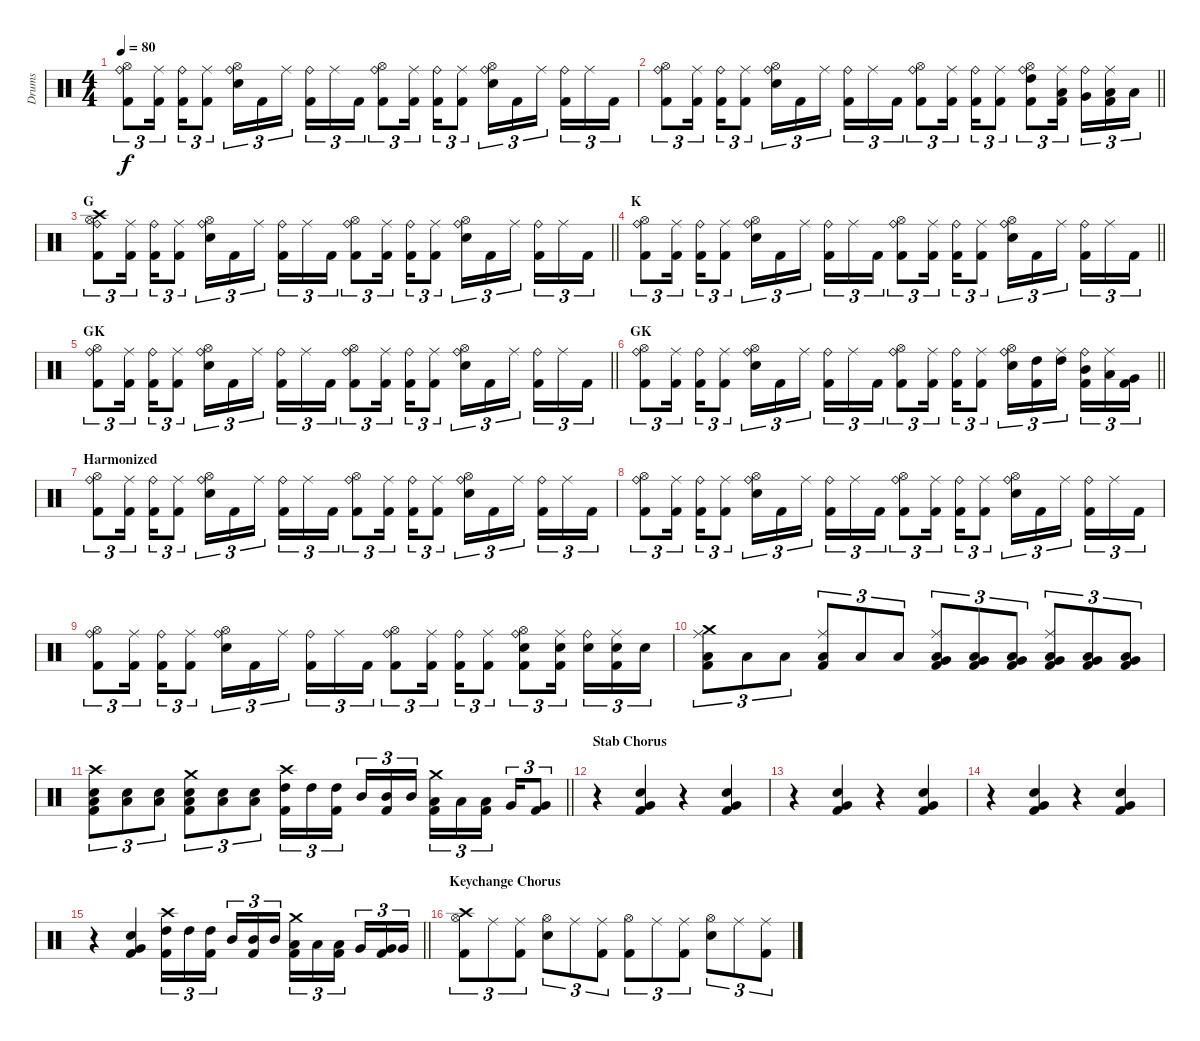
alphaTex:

\track ("Drums" "Drums") {instrument percussion}
\staff {score}
\articulation defaults
\ts (4 4)
\tempo 80
\clef neutral
\ks c
("Ride (bell)" "Hi-Hat (open)" "Kick (hit) 2").8{tu (3 2) dy f} ("Ride (middle)" "Kick (hit) 2").16{tu (3 2)} ("Ride (bell)" "Kick (hit) 2").16{tu (3 2)} ("Ride (middle)" "Kick (hit) 2").8{tu (3 2)} ("Ride (bell)" "Hi-Hat (open)" "Snare (hit) 2").16{tu (3 2)} "Kick (hit) 2".16{tu (3 2)} "Ride (middle)".16{tu (3 2) beam splitsecondary} ("Ride (bell)" "Kick (hit) 2").16{tu (3 2)} "Ride (middle)".16{tu (3 2)} "Kick (hit) 2".16{tu (3 2)} ("Ride (bell)" "Hi-Hat (open)" "Kick (hit) 2").8{tu (3 2)} ("Ride (middle)" "Kick (hit) 2").16{tu (3 2)} ("Ride (bell)" "Kick (hit) 2").16{tu (3 2)} ("Ride (middle)" "Kick (hit) 2").8{tu (3 2)} ("Ride (bell)" "Hi-Hat (open)" "Snare (hit) 2").16{tu (3 2)} "Kick (hit) 2".16{tu (3 2)} "Ride (middle)".16{tu (3 2) beam splitsecondary} ("Ride (bell)" "Kick (hit) 2").16{tu (3 2)} "Ride (middle)".16{tu (3 2)} "Kick (hit) 2".16{tu (3 2)} |
\barLineRight lightlight
("Ride (bell)" "Hi-Hat (open)" "Kick (hit) 2").8{tu (3 2)} ("Ride (middle)" "Kick (hit) 2").16{tu (3 2)} ("Ride (bell)" "Kick (hit) 2").16{tu (3 2)} ("Ride (middle)" "Kick (hit) 2").8{tu (3 2)} ("Ride (bell)" "Hi-Hat (open)" "Snare (hit) 2").16{tu (3 2)} "Kick (hit) 2".16{tu (3 2)} "Ride (middle)".16{tu (3 2) beam splitsecondary} ("Ride (bell)" "Kick (hit) 2").16{tu (3 2)} "Ride (middle)".16{tu (3 2)} "Kick (hit) 2".16{tu (3 2)} ("Ride (bell)" "Hi-Hat (open)" "Kick (hit) 2").8{tu (3 2)} ("Ride (middle)" "Kick (hit) 2").16{tu (3 2)} ("Ride (bell)" "Kick (hit) 2").16{tu (3 2)} ("Ride (middle)" "Kick (hit) 2").8{tu (3 2)} ("Ride (bell)" "Hi-Hat (open)" "High Tom (hit)" "Kick (hit) 2").8{tu (3 2)} ("Ride (middle)" "Low Tom (hit)" "Kick (hit) 2").16{tu (3 2)} ("Ride (bell)" "Very Low Tom (hit)").16{tu (3 2)} ("Ride (middle)" "Low Floor Tom (hit)" "Kick (hit) 2").16{tu (3 2)} "Low Floor Tom (hit)".16{tu (3 2)} |
\section ("" "G")
\barLineRight lightlight
("Crash high (hit)" "Ride (bell)" "Hi-Hat (open)" "Kick (hit) 2").8{tu (3 2)} ("Ride (middle)" "Kick (hit) 2").16{tu (3 2)} ("Ride (bell)" "Kick (hit) 2").16{tu (3 2)} ("Ride (middle)" "Kick (hit) 2").8{tu (3 2)} ("Ride (bell)" "Hi-Hat (open)" "Snare (hit) 2").16{tu (3 2)} "Kick (hit) 2".16{tu (3 2)} "Ride (middle)".16{tu (3 2) beam splitsecondary} ("Ride (bell)" "Kick (hit) 2").16{tu (3 2)} "Ride (middle)".16{tu (3 2)} "Kick (hit) 2".16{tu (3 2)} ("Ride (bell)" "Hi-Hat (open)" "Kick (hit) 2").8{tu (3 2)} ("Ride (middle)" "Kick (hit) 2").16{tu (3 2)} ("Ride (bell)" "Kick (hit) 2").16{tu (3 2)} ("Ride (middle)" "Kick (hit) 2").8{tu (3 2)} ("Ride (bell)" "Hi-Hat (open)" "Snare (hit) 2").16{tu (3 2)} "Kick (hit) 2".16{tu (3 2)} "Ride (middle)".16{tu (3 2) beam splitsecondary} ("Ride (bell)" "Kick (hit) 2").16{tu (3 2)} "Ride (middle)".16{tu (3 2)} "Kick (hit) 2".16{tu (3 2)} |
\section ("" "K")
\barLineRight lightlight
("Ride (bell)" "Hi-Hat (open)" "Kick (hit) 2").8{tu (3 2)} ("Ride (middle)" "Kick (hit) 2").16{tu (3 2)} ("Ride (bell)" "Kick (hit) 2").16{tu (3 2)} ("Ride (middle)" "Kick (hit) 2").8{tu (3 2)} ("Ride (bell)" "Hi-Hat (open)" "Snare (hit) 2").16{tu (3 2)} "Kick (hit) 2".16{tu (3 2)} "Ride (middle)".16{tu (3 2) beam splitsecondary} ("Ride (bell)" "Kick (hit) 2").16{tu (3 2)} "Ride (middle)".16{tu (3 2)} "Kick (hit) 2".16{tu (3 2)} ("Ride (bell)" "Hi-Hat (open)" "Kick (hit) 2").8{tu (3 2)} ("Ride (middle)" "Kick (hit) 2").16{tu (3 2)} ("Ride (bell)" "Kick (hit) 2").16{tu (3 2)} ("Ride (middle)" "Kick (hit) 2").8{tu (3 2)} ("Ride (bell)" "Hi-Hat (open)" "Snare (hit) 2").16{tu (3 2)} "Kick (hit) 2".16{tu (3 2)} "Ride (middle)".16{tu (3 2) beam splitsecondary} ("Ride (bell)" "Kick (hit) 2").16{tu (3 2)} "Ride (middle)".16{tu (3 2)} "Kick (hit) 2".16{tu (3 2)} |
\section ("" "GK")
\barLineRight lightlight
("Ride (bell)" "Hi-Hat (open)" "Kick (hit) 2").8{tu (3 2)} ("Ride (middle)" "Kick (hit) 2").16{tu (3 2)} ("Ride (bell)" "Kick (hit) 2").16{tu (3 2)} ("Ride (middle)" "Kick (hit) 2").8{tu (3 2)} ("Ride (bell)" "Hi-Hat (open)" "Snare (hit) 2").16{tu (3 2)} "Kick (hit) 2".16{tu (3 2)} "Ride (middle)".16{tu (3 2) beam splitsecondary} ("Ride (bell)" "Kick (hit) 2").16{tu (3 2)} "Ride (middle)".16{tu (3 2)} "Kick (hit) 2".16{tu (3 2)} ("Ride (bell)" "Hi-Hat (open)" "Kick (hit) 2").8{tu (3 2)} ("Ride (middle)" "Kick (hit) 2").16{tu (3 2)} ("Ride (bell)" "Kick (hit) 2").16{tu (3 2)} ("Ride (middle)" "Kick (hit) 2").8{tu (3 2)} ("Ride (bell)" "Hi-Hat (open)" "Snare (hit) 2").16{tu (3 2)} "Kick (hit) 2".16{tu (3 2)} "Ride (middle)".16{tu (3 2) beam splitsecondary} ("Ride (bell)" "Kick (hit) 2").16{tu (3 2)} "Ride (middle)".16{tu (3 2)} "Kick (hit) 2".16{tu (3 2)} |
\section ("" "GK")
\barLineRight lightlight
("Ride (bell)" "Hi-Hat (open)" "Kick (hit) 2").8{tu (3 2)} ("Ride (middle)" "Kick (hit) 2").16{tu (3 2)} ("Ride (bell)" "Kick (hit) 2").16{tu (3 2)} ("Ride (middle)" "Kick (hit) 2").8{tu (3 2)} ("Ride (bell)" "Hi-Hat (open)" "Snare (hit) 2").16{tu (3 2)} "Kick (hit) 2".16{tu (3 2)} "Ride (middle)".16{tu (3 2) beam splitsecondary} ("Ride (bell)" "Kick (hit) 2").16{tu (3 2)} "Ride (middle)".16{tu (3 2)} "Kick (hit) 2".16{tu (3 2)} ("Ride (bell)" "Hi-Hat (open)" "Kick (hit) 2").8{tu (3 2)} ("Ride (middle)" "Kick (hit) 2").16{tu (3 2)} ("Ride (bell)" "Kick (hit) 2").16{tu (3 2)} ("Ride (middle)" "Kick (hit) 2").8{tu (3 2)} ("Ride (bell)" "Hi-Hat (open)" "Snare (hit) 2").16{tu (3 2)} ("High Tom (hit)" "Kick (hit) 2").16{tu (3 2)} ("Ride (middle)" "High Tom (hit)").16{tu (3 2) beam splitsecondary} ("Ride (bell)" "Mid Tom (hit)" "Kick (hit) 2").16{tu (3 2)} ("Ride (middle)" "Low Tom (hit)").16{tu (3 2)} ("Very Low Tom (hit)" "Kick (hit) 2").16{tu (3 2)} |
\section ("" "Harmonized")
("Ride (bell)" "Hi-Hat (open)" "Kick (hit) 2").8{tu (3 2)} ("Ride (middle)" "Kick (hit) 2").16{tu (3 2)} ("Ride (bell)" "Kick (hit) 2").16{tu (3 2)} ("Ride (middle)" "Kick (hit) 2").8{tu (3 2)} ("Ride (bell)" "Hi-Hat (open)" "Snare (hit) 2").16{tu (3 2)} "Kick (hit) 2".16{tu (3 2)} "Ride (middle)".16{tu (3 2) beam splitsecondary} ("Ride (bell)" "Kick (hit) 2").16{tu (3 2)} "Ride (middle)".16{tu (3 2)} "Kick (hit) 2".16{tu (3 2)} ("Ride (bell)" "Hi-Hat (open)" "Kick (hit) 2").8{tu (3 2)} ("Ride (middle)" "Kick (hit) 2").16{tu (3 2)} ("Ride (bell)" "Kick (hit) 2").16{tu (3 2)} ("Ride (middle)" "Kick (hit) 2").8{tu (3 2)} ("Ride (bell)" "Hi-Hat (open)" "Snare (hit) 2").16{tu (3 2)} "Kick (hit) 2".16{tu (3 2)} "Ride (middle)".16{tu (3 2) beam splitsecondary} ("Ride (bell)" "Kick (hit) 2").16{tu (3 2)} "Ride (middle)".16{tu (3 2)} "Kick (hit) 2".16{tu (3 2)} |
("Ride (bell)" "Hi-Hat (open)" "Kick (hit) 2").8{tu (3 2)} ("Ride (middle)" "Kick (hit) 2").16{tu (3 2)} ("Ride (bell)" "Kick (hit) 2").16{tu (3 2)} ("Ride (middle)" "Kick (hit) 2").8{tu (3 2)} ("Ride (bell)" "Hi-Hat (open)" "Snare (hit) 2").16{tu (3 2)} "Kick (hit) 2".16{tu (3 2)} "Ride (middle)".16{tu (3 2) beam splitsecondary} ("Ride (bell)" "Kick (hit) 2").16{tu (3 2)} "Ride (middle)".16{tu (3 2)} "Kick (hit) 2".16{tu (3 2)} ("Ride (bell)" "Hi-Hat (open)" "Kick (hit) 2").8{tu (3 2)} ("Ride (middle)" "Kick (hit) 2").16{tu (3 2)} ("Ride (bell)" "Kick (hit) 2").16{tu (3 2)} ("Ride (middle)" "Kick (hit) 2").8{tu (3 2)} ("Ride (bell)" "Hi-Hat (open)" "Snare (hit) 2").16{tu (3 2)} "Kick (hit) 2".16{tu (3 2)} "Ride (middle)".16{tu (3 2) beam splitsecondary} ("Ride (bell)" "Kick (hit) 2").16{tu (3 2)} "Ride (middle)".16{tu (3 2)} "Kick (hit) 2".16{tu (3 2)} |
("Ride (bell)" "Hi-Hat (open)" "Kick (hit) 2").8{tu (3 2)} ("Ride (middle)" "Kick (hit) 2").16{tu (3 2)} ("Ride (bell)" "Kick (hit) 2").16{tu (3 2)} ("Ride (middle)" "Kick (hit) 2").8{tu (3 2)} ("Ride (bell)" "Hi-Hat (open)" "Snare (hit) 2").16{tu (3 2)} "Kick (hit) 2".16{tu (3 2)} "Ride (middle)".16{tu (3 2) beam splitsecondary} ("Ride (bell)" "Kick (hit) 2").16{tu (3 2)} "Ride (middle)".16{tu (3 2)} "Kick (hit) 2".16{tu (3 2)} ("Ride (bell)" "Hi-Hat (open)" "Kick (hit) 2").8{tu (3 2)} ("Ride (middle)" "Kick (hit) 2").16{tu (3 2)} ("Ride (bell)" "Kick (hit) 2").16{tu (3 2)} ("Ride (middle)" "Kick (hit) 2").8{tu (3 2)} ("Ride (bell)" "Hi-Hat (open)" "Snare (hit) 2" "Kick (hit) 2").8{tu (3 2)} ("Ride (middle)" "Snare (hit) 2" "Kick (hit) 2").16{tu (3 2)} ("Ride (bell)" "Snare (hit) 2").16{tu (3 2)} ("Ride (middle)" "Snare (hit) 2" "Kick (hit) 2").16{tu (3 2)} "Snare (hit) 2".16{tu (3 2)} |
("Crash medium (hit)" "Ride (middle)" "Low Floor Tom (hit)" "Kick (hit) 2").8{tu (3 2)} "Low Floor Tom (hit)".8{tu (3 2)} "Low Floor Tom (hit)".8{tu (3 2)} ("Ride (middle)" "Low Floor Tom (hit)" "Kick (hit) 2").8{tu (3 2)} "Low Floor Tom (hit)".8{tu (3 2)} "Low Floor Tom (hit)".8{tu (3 2)} ("Ride (middle)" "Very Low Tom (hit)" "Low Floor Tom (hit)" "Kick (hit) 2").8{tu (3 2)} ("Very Low Tom (hit)" "Low Floor Tom (hit)" "Kick (hit) 2").8{tu (3 2)} ("Very Low Tom (hit)" "Low Floor Tom (hit)" "Kick (hit) 2").8{tu (3 2)} ("Ride (middle)" "Very Low Tom (hit)" "Low Floor Tom (hit)" "Kick (hit) 2").8{tu (3 2)} ("Very Low Tom (hit)" "Low Floor Tom (hit)" "Kick (hit) 2").8{tu (3 2)} ("Very Low Tom (hit)" "Low Floor Tom (hit)" "Kick (hit) 2").8{tu (3 2)} |
\barLineRight lightlight
("Crash high (hit)" "Low Floor Tom (hit)" "Snare (hit) 2" "Kick (hit) 2").8{tu (3 2)} ("Low Floor Tom (hit)" "Snare (hit) 2").8{tu (3 2)} ("Low Floor Tom (hit)" "Snare (hit) 2").8{tu (3 2)} ("Crash medium (hit)" "Low Floor Tom (hit)" "Snare (hit) 2" "Kick (hit) 2").8{tu (3 2)} ("Low Floor Tom (hit)" "Snare (hit) 2").8{tu (3 2)} ("Low Floor Tom (hit)" "Snare (hit) 2").8{tu (3 2)} ("Crash high (hit)" "High Tom (hit)" "Kick (hit) 2").16{tu (3 2)} "High Tom (hit)".16{tu (3 2)} ("High Tom (hit)" "Kick (hit) 2").16{tu (3 2) beam splitsecondary} "Mid Tom (hit)".16{tu (3 2)} ("Mid Tom (hit)" "Kick (hit) 2").16{tu (3 2)} "Mid Tom (hit)".16{tu (3 2)} ("Crash medium (hit)" "Low Tom (hit)" "Kick (hit) 2").16{tu (3 2)} "Low Tom (hit)".16{tu (3 2)} ("Low Tom (hit)" "Kick (hit) 2").16{tu (3 2) beam splitsecondary} "Very Low Tom (hit)".16{tu (3 2)} ("Very Low Tom (hit)" "Kick (hit) 2").8{tu (3 2)} |
\section ("" "Stab Chorus")
r.4 ("Very Low Tom (hit)" "Snare (hit) 2" "Kick (hit) 2").4 r.4 ("Very Low Tom (hit)" "Snare (hit) 2" "Kick (hit) 2").4 |
r.4 ("Very Low Tom (hit)" "Snare (hit) 2" "Kick (hit) 2").4 r.4 ("Very Low Tom (hit)" "Snare (hit) 2" "Kick (hit) 2").4 |
r.4 ("Very Low Tom (hit)" "Snare (hit) 2" "Kick (hit) 2").4 r.4 ("Very Low Tom (hit)" "Snare (hit) 2" "Kick (hit) 2").4 |
\barLineRight lightlight
r.4 ("Very Low Tom (hit)" "Snare (hit) 2" "Kick (hit) 2").4 ("Crash high (hit)" "High Tom (hit)" "Kick (hit) 2").16{tu (3 2)} "High Tom (hit)".16{tu (3 2)} ("High Tom (hit)" "Kick (hit) 2").16{tu (3 2) beam splitsecondary} "Mid Tom (hit)".16{tu (3 2)} ("Mid Tom (hit)" "Kick (hit) 2").16{tu (3 2)} "Mid Tom (hit)".16{tu (3 2)} ("Crash medium (hit)" "Low Tom (hit)" "Kick (hit) 2").16{tu (3 2)} "Low Tom (hit)".16{tu (3 2)} ("Low Tom (hit)" "Kick (hit) 2").16{tu (3 2) beam splitsecondary} "Very Low Tom (hit)".16{tu (3 2)} ("Very Low Tom (hit)" "Kick (hit) 2").16{tu (3 2)} "Very Low Tom (hit)".16{tu (3 2)} |
\section ("" "Keychange Chorus")
("Crash high (hit)" "Hi-Hat (open)" "Kick (hit) 2").8{tu (3 2)} "Ride (middle)".8{tu (3 2)} ("Ride (middle)" "Kick (hit) 2").8{tu (3 2)} ("Hi-Hat (open)" "Snare (hit) 2").8{tu (3 2)} "Ride (middle)".8{tu (3 2)} ("Ride (middle)" "Kick (hit) 2").8{tu (3 2)} ("Hi-Hat (open)" "Kick (hit) 2").8{tu (3 2)} "Ride (middle)".8{tu (3 2)} ("Ride (middle)" "Kick (hit) 2").8{tu (3 2)} ("Hi-Hat (open)" "Snare (hit) 2").8{tu (3 2)} "Ride (middle)".8{tu (3 2)} ("Ride (middle)" "Kick (hit) 2").8{tu (3 2)}
